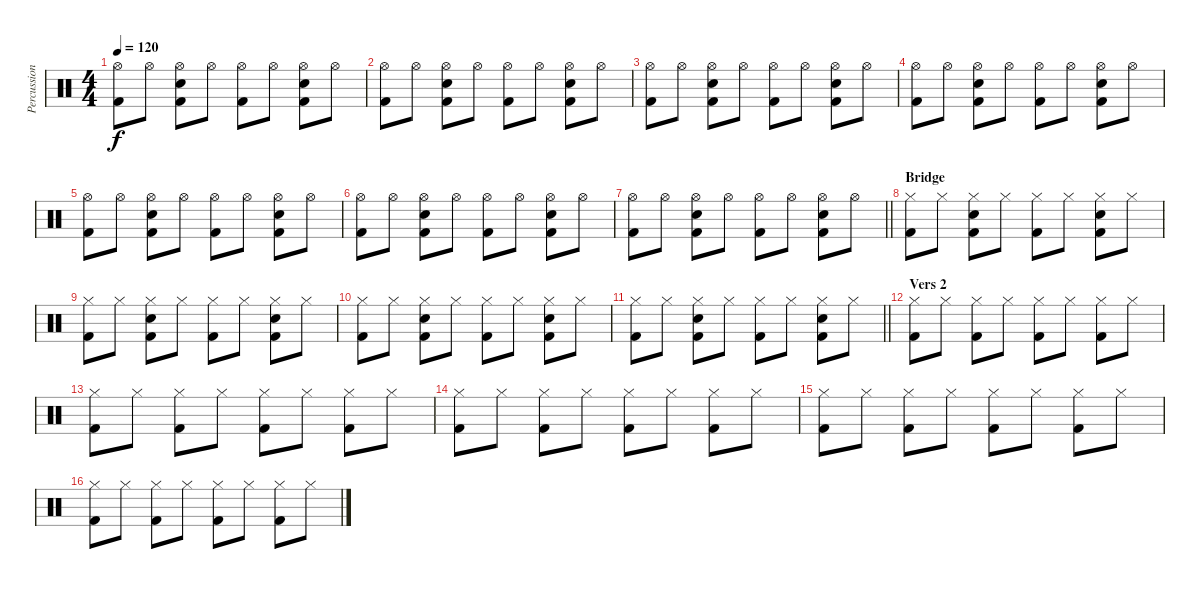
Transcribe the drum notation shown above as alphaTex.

\track ("Percussion" "Percussion") {instrument percussion}
\staff {score}
\articulation defaults
\ts (4 4)
\tempo 120
\clef neutral
\ks c
("Hi-Hat (open)" "Kick (hit) 2").8{dy f} "Hi-Hat (open)".8 ("Hi-Hat (open)" "Snare (hit) 2" "Kick (hit) 2").8 "Hi-Hat (open)".8 ("Hi-Hat (open)" "Kick (hit) 2").8 "Hi-Hat (open)".8 ("Hi-Hat (open)" "Snare (hit) 2" "Kick (hit) 2").8 "Hi-Hat (open)".8 |
("Hi-Hat (open)" "Kick (hit) 2").8 "Hi-Hat (open)".8 ("Hi-Hat (open)" "Snare (hit) 2" "Kick (hit) 2").8 "Hi-Hat (open)".8 ("Hi-Hat (open)" "Kick (hit) 2").8 "Hi-Hat (open)".8 ("Hi-Hat (open)" "Snare (hit) 2" "Kick (hit) 2").8 "Hi-Hat (open)".8 |
("Hi-Hat (open)" "Kick (hit) 2").8 "Hi-Hat (open)".8 ("Hi-Hat (open)" "Snare (hit) 2" "Kick (hit) 2").8 "Hi-Hat (open)".8 ("Hi-Hat (open)" "Kick (hit) 2").8 "Hi-Hat (open)".8 ("Hi-Hat (open)" "Snare (hit) 2" "Kick (hit) 2").8 "Hi-Hat (open)".8 |
("Hi-Hat (open)" "Kick (hit) 2").8 "Hi-Hat (open)".8 ("Hi-Hat (open)" "Snare (hit) 2" "Kick (hit) 2").8 "Hi-Hat (open)".8 ("Hi-Hat (open)" "Kick (hit) 2").8 "Hi-Hat (open)".8 ("Hi-Hat (open)" "Snare (hit) 2" "Kick (hit) 2").8 "Hi-Hat (open)".8 |
("Hi-Hat (open)" "Kick (hit) 2").8 "Hi-Hat (open)".8 ("Hi-Hat (open)" "Snare (hit) 2" "Kick (hit) 2").8 "Hi-Hat (open)".8 ("Hi-Hat (open)" "Kick (hit) 2").8 "Hi-Hat (open)".8 ("Hi-Hat (open)" "Snare (hit) 2" "Kick (hit) 2").8 "Hi-Hat (open)".8 |
("Hi-Hat (open)" "Kick (hit) 2").8 "Hi-Hat (open)".8 ("Hi-Hat (open)" "Snare (hit) 2" "Kick (hit) 2").8 "Hi-Hat (open)".8 ("Hi-Hat (open)" "Kick (hit) 2").8 "Hi-Hat (open)".8 ("Hi-Hat (open)" "Snare (hit) 2" "Kick (hit) 2").8 "Hi-Hat (open)".8 |
\barLineRight lightlight
("Hi-Hat (open)" "Kick (hit) 2").8 "Hi-Hat (open)".8 ("Hi-Hat (open)" "Snare (hit) 2" "Kick (hit) 2").8 "Hi-Hat (open)".8 ("Hi-Hat (open)" "Kick (hit) 2").8 "Hi-Hat (open)".8 ("Hi-Hat (open)" "Snare (hit) 2" "Kick (hit) 2").8 "Hi-Hat (open)".8 |
\section ("" "Bridge")
("Hi-Hat (closed)" "Kick (hit) 2").8 "Hi-Hat (closed)".8 ("Hi-Hat (closed)" "Snare (hit) 2" "Kick (hit) 2").8 "Hi-Hat (closed)".8 ("Hi-Hat (closed)" "Kick (hit) 2").8 "Hi-Hat (closed)".8 ("Hi-Hat (closed)" "Snare (hit) 2" "Kick (hit) 2").8 "Hi-Hat (closed)".8 |
("Hi-Hat (closed)" "Kick (hit) 2").8 "Hi-Hat (closed)".8 ("Hi-Hat (closed)" "Snare (hit) 2" "Kick (hit) 2").8 "Hi-Hat (closed)".8 ("Hi-Hat (closed)" "Kick (hit) 2").8 "Hi-Hat (closed)".8 ("Hi-Hat (closed)" "Snare (hit) 2" "Kick (hit) 2").8 "Hi-Hat (closed)".8 |
("Hi-Hat (closed)" "Kick (hit) 2").8 "Hi-Hat (closed)".8 ("Hi-Hat (closed)" "Snare (hit) 2" "Kick (hit) 2").8 "Hi-Hat (closed)".8 ("Hi-Hat (closed)" "Kick (hit) 2").8 "Hi-Hat (closed)".8 ("Hi-Hat (closed)" "Snare (hit) 2" "Kick (hit) 2").8 "Hi-Hat (closed)".8 |
\barLineRight lightlight
("Hi-Hat (closed)" "Kick (hit) 2").8 "Hi-Hat (closed)".8 ("Hi-Hat (closed)" "Snare (hit) 2" "Kick (hit) 2").8 "Hi-Hat (closed)".8 ("Hi-Hat (closed)" "Kick (hit) 2").8 "Hi-Hat (closed)".8 ("Hi-Hat (closed)" "Snare (hit) 2" "Kick (hit) 2").8 "Hi-Hat (closed)".8 |
\section ("" "Vers 2")
("Hi-Hat (closed)" "Kick (hit) 2").8 "Hi-Hat (closed)".8 ("Hi-Hat (closed)" "Kick (hit) 2").8 "Hi-Hat (closed)".8 ("Hi-Hat (closed)" "Kick (hit) 2").8 "Hi-Hat (closed)".8 ("Hi-Hat (closed)" "Kick (hit) 2").8 "Hi-Hat (closed)".8 |
("Hi-Hat (closed)" "Kick (hit) 2").8 "Hi-Hat (closed)".8 ("Hi-Hat (closed)" "Kick (hit) 2").8 "Hi-Hat (closed)".8 ("Hi-Hat (closed)" "Kick (hit) 2").8 "Hi-Hat (closed)".8 ("Hi-Hat (closed)" "Kick (hit) 2").8 "Hi-Hat (closed)".8 |
("Hi-Hat (closed)" "Kick (hit) 2").8 "Hi-Hat (closed)".8 ("Hi-Hat (closed)" "Kick (hit) 2").8 "Hi-Hat (closed)".8 ("Hi-Hat (closed)" "Kick (hit) 2").8 "Hi-Hat (closed)".8 ("Hi-Hat (closed)" "Kick (hit) 2").8 "Hi-Hat (closed)".8 |
("Hi-Hat (closed)" "Kick (hit) 2").8 "Hi-Hat (closed)".8 ("Hi-Hat (closed)" "Kick (hit) 2").8 "Hi-Hat (closed)".8 ("Hi-Hat (closed)" "Kick (hit) 2").8 "Hi-Hat (closed)".8 ("Hi-Hat (closed)" "Kick (hit) 2").8 "Hi-Hat (closed)".8 |
("Hi-Hat (closed)" "Kick (hit) 2").8 "Hi-Hat (closed)".8 ("Hi-Hat (closed)" "Kick (hit) 2").8 "Hi-Hat (closed)".8 ("Hi-Hat (closed)" "Kick (hit) 2").8 "Hi-Hat (closed)".8 ("Hi-Hat (closed)" "Kick (hit) 2").8 "Hi-Hat (closed)".8
